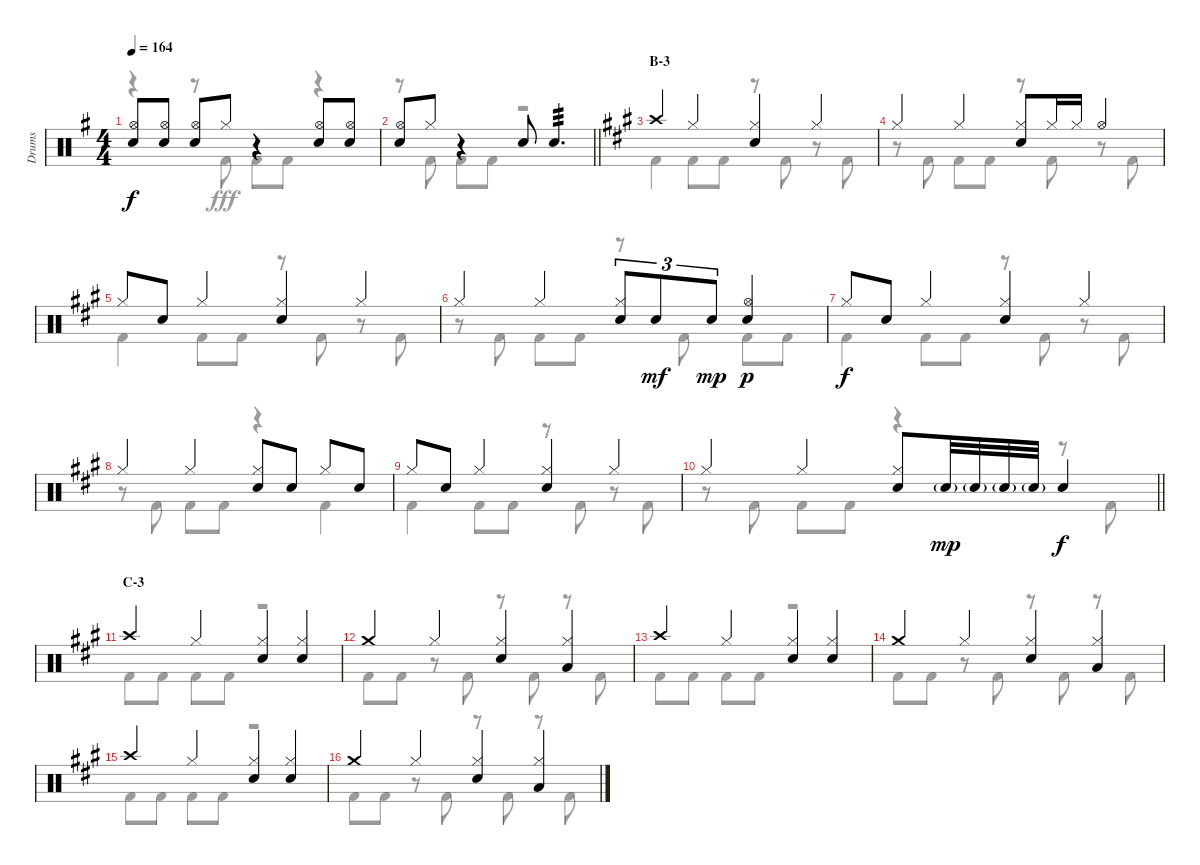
\track ("Drums" "Drums") {instrument percussion}
\staff {score}
\articulation defaults
\voice
\ts (4 4)
\tempo 164
\clef neutral
\ks g
("Hi-Hat (open)" "Snare (hit) 2").8{dy f} ("Hi-Hat (open)" "Snare (hit) 2").8 ("Hi-Hat (open)" "Snare (hit) 2").8 "Hi-Hat (closed)".8 r.4 ("Hi-Hat (open)" "Snare (hit) 2").8 ("Hi-Hat (open)" "Snare (hit) 2").8 |
\barLineRight lightlight
("Hi-Hat (open)" "Snare (hit) 2").8 "Hi-Hat (closed)".8 r.4 "Snare (hit) 2".8 "Snare (hit) 2".4{d tp 3} |
\section ("" "B-3")
\ks a "Crash high (hit)".4 "Hi-Hat (closed)".4
("Hi-Hat (closed)" "Snare (hit) 2").4 "Hi-Hat (closed)".4 |
"Hi-Hat (closed)".4 "Hi-Hat (closed)".4 ("Hi-Hat (closed)" "Snare (hit) 2").8 "Hi-Hat (closed)".16 "Hi-Hat (closed)".16 "Hi-Hat (open)".4 |
"Hi-Hat (closed)".8 "Snare (hit) 2".8 "Hi-Hat (closed)".4 ("Hi-Hat (closed)" "Snare (hit) 2").4 "Hi-Hat (closed)".4 |
"Hi-Hat (closed)".4 "Hi-Hat (closed)".4 ("Hi-Hat (closed)" "Snare (hit) 2").8{tu (3 2)} "Snare (hit) 2".8{tu (3 2) dy mf} "Snare (hit) 2".8{tu (3 2) dy mp} ("Hi-Hat (open)" "Snare (hit) 2").4{dy p} |
"Hi-Hat (closed)".8{dy f} "Snare (hit) 2".8 "Hi-Hat (closed)".4 ("Hi-Hat (closed)" "Snare (hit) 2").4 "Hi-Hat (closed)".4 |
"Hi-Hat (closed)".4 "Hi-Hat (closed)".4 ("Hi-Hat (closed)" "Snare (hit) 2").8 "Snare (hit) 2".8 "Hi-Hat (closed)".8 "Snare (hit) 2".8 |
"Hi-Hat (closed)".8 "Snare (hit) 2".8 "Hi-Hat (closed)".4 ("Hi-Hat (closed)" "Snare (hit) 2").4 "Hi-Hat (closed)".4 |
\barLineRight lightlight "Hi-Hat (closed)".4 "Hi-Hat (closed)".4
("Hi-Hat (closed)" "Snare (hit) 2").8 "Snare (hit) 2"{g}.32{dy mp} "Snare (hit) 2"{g}.32 "Snare (hit) 2"{g}.32 "Snare (hit) 2"{g}.32 "Snare (hit) 2".4{dy f} |
\section ("" "C-3")
"Crash high (hit)".4 "Hi-Hat (closed)".4 ("Hi-Hat (closed)" "Snare (hit) 2").4 ("Hi-Hat (closed)" "Snare (hit) 2").4 |
"Crash medium (hit)".4 "Hi-Hat (closed)".4 ("Hi-Hat (closed)" "Snare (hit) 2").4 ("Hi-Hat (closed)" "Low Tom (hit)").4 |
"Crash high (hit)".4 "Hi-Hat (closed)".4 ("Hi-Hat (closed)" "Snare (hit) 2").4 ("Hi-Hat (closed)" "Snare (hit) 2").4 |
"Crash medium (hit)".4 "Hi-Hat (closed)".4 ("Hi-Hat (closed)" "Snare (hit) 2").4 ("Hi-Hat (closed)" "Low Tom (hit)").4 |
"Crash high (hit)".4 "Hi-Hat (closed)".4 ("Hi-Hat (closed)" "Snare (hit) 2").4 ("Hi-Hat (closed)" "Snare (hit) 2").4 |
"Crash medium (hit)".4 "Hi-Hat (closed)".4 ("Hi-Hat (closed)" "Snare (hit) 2").4 ("Hi-Hat (closed)" "Low Tom (hit)").4
\voice
\clef neutral
\ottava regular
\simile none
\ks g
r.4{dy fff} r.8 "Kick (hit) 2".8 "Kick (hit) 2".8 "Kick (hit) 2".8 r.4 |
\barLineRight lightlight
r.8 "Kick (hit) 2".8 "Kick (hit) 2".8 "Kick (hit) 2".8 r.2 |
\ks a "Kick (hit) 2".4 "Kick (hit) 2".8 "Kick (hit) 2".8
r.8 "Kick (hit) 2".8 r.8 "Kick (hit) 2".8 |
r.8 "Kick (hit) 2".8 "Kick (hit) 2".8 "Kick (hit) 2".8 r.8 "Kick (hit) 2".8 r.8 "Kick (hit) 2".8 |
"Kick (hit) 2".4 "Kick (hit) 2".8 "Kick (hit) 2".8 r.8 "Kick (hit) 2".8 r.8 "Kick (hit) 2".8 |
r.8 "Kick (hit) 2".8 "Kick (hit) 2".8 "Kick (hit) 2".8 r.8 "Kick (hit) 2".8 "Kick (hit) 2".8 "Kick (hit) 2".8 |
"Kick (hit) 2".4 "Kick (hit) 2".8 "Kick (hit) 2".8 r.8 "Kick (hit) 2".8 r.8 "Kick (hit) 2".8 |
r.8 "Kick (hit) 2".8 "Kick (hit) 2".8 "Kick (hit) 2".8 r.4 "Kick (hit) 2".4 |
"Kick (hit) 2".4 "Kick (hit) 2".8 "Kick (hit) 2".8 r.8 "Kick (hit) 2".8 r.8 "Kick (hit) 2".8 |
\barLineRight lightlight
r.8 "Kick (hit) 2".8 "Kick (hit) 2".8 "Kick (hit) 2".8 r.4 r.8 "Kick (hit) 2".8 |
"Kick (hit) 2".8 "Kick (hit) 2".8 "Kick (hit) 2".8 "Kick (hit) 2".8 r.2 |
"Kick (hit) 2".8 "Kick (hit) 2".8 r.8 "Kick (hit) 2".8 r.8 "Kick (hit) 2".8 r.8 "Kick (hit) 2".8 |
"Kick (hit) 2".8 "Kick (hit) 2".8 "Kick (hit) 2".8 "Kick (hit) 2".8 r.2 |
"Kick (hit) 2".8 "Kick (hit) 2".8 r.8 "Kick (hit) 2".8 r.8 "Kick (hit) 2".8 r.8 "Kick (hit) 2".8 |
"Kick (hit) 2".8 "Kick (hit) 2".8 "Kick (hit) 2".8 "Kick (hit) 2".8 r.2 |
"Kick (hit) 2".8 "Kick (hit) 2".8 r.8 "Kick (hit) 2".8 r.8 "Kick (hit) 2".8 r.8 "Kick (hit) 2".8
